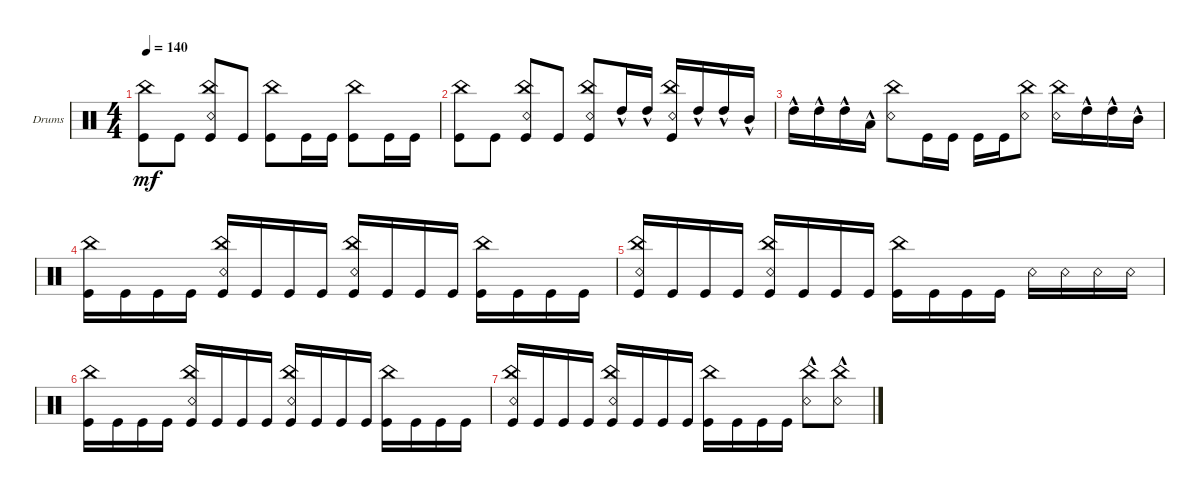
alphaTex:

\defaultSystemsLayout 4
\bracketExtendMode groupsimilarinstruments
\firstSystemTrackNameOrientation horizontal
\otherSystemsTrackNameOrientation horizontal
\track ("Drumkit" "Drums") {instrument percussion}
\staff {score}
\articulation defaults
\ts (4 4)
\tempo 140
\clef neutral
\ks c
("Kick (hit)" "China (hit)").8{dy mf} "Kick (hit)".8 ("Kick (hit)" "China (hit)" "Snare (rim shot)").8 "Kick (hit)".8 ("Kick (hit)" "China (hit)").8 "Kick (hit)".16 "Kick (hit)".16 ("Kick (hit)" "China (hit)").8 "Kick (hit)".16 "Kick (hit)".16 |
("Kick (hit)" "China (hit)").8 "Kick (hit)".8 ("Kick (hit)" "Snare (rim shot)" "China (hit)").8 "Kick (hit)".8 ("Kick (hit)" "Snare (rim shot)" "China (hit)").8 "High Tom (hit)"{hac}.16 "High Tom (hit)"{hac}.16 ("Snare (rim shot)" "China (hit)" "Kick (hit)").16 "High Tom (hit)"{hac}.16 "High Tom (hit)"{hac}.16 "Mid Tom (hit)"{hac}.16 |
"High Tom (hit)"{hac}.16 "High Tom (hit)"{hac}.16 "High Tom (hit)"{hac}.16 "Low Tom (hit)"{hac}.16 ("Snare (rim shot)" "China (hit)").8 "Kick (hit)".16 "Kick (hit)".16 "Kick (hit)".16 "Kick (hit)".16 ("Snare (rim shot)" "China (hit)").8 ("Snare (rim shot)" "China (hit)").16 "High Tom (hit)"{hac}.16 "High Tom (hit)"{hac}.16 "Mid Tom (hit)"{hac}.16 |
("China (hit)" "Kick (hit)").16 "Kick (hit)".16 "Kick (hit)".16 "Kick (hit)".16 ("Snare (rim shot)" "China (hit)" "Kick (hit)").16 "Kick (hit)".16 "Kick (hit)".16 "Kick (hit)".16 ("Snare (rim shot)" "China (hit)" "Kick (hit)").16 "Kick (hit)".16 "Kick (hit)".16 "Kick (hit)".16 ("Kick (hit)" "China (hit)").16 "Kick (hit)".16 "Kick (hit)".16 "Kick (hit)".16 |
("Snare (rim shot)" "China (hit)" "Kick (hit)").16 "Kick (hit)".16 "Kick (hit)".16 "Kick (hit)".16 ("Snare (rim shot)" "China (hit)" "Kick (hit)").16 "Kick (hit)".16 "Kick (hit)".16 "Kick (hit)".16 ("Kick (hit)" "China (hit)").16 "Kick (hit)".16 "Kick (hit)".16 "Kick (hit)".16 "Snare (rim shot)".16 "Snare (rim shot)".16 "Snare (rim shot)".16 "Snare (rim shot)".16 |
("China (hit)" "Kick (hit)").16 "Kick (hit)".16 "Kick (hit)".16 "Kick (hit)".16 ("Snare (rim shot)" "China (hit)" "Kick (hit)").16 "Kick (hit)".16 "Kick (hit)".16 "Kick (hit)".16 ("Snare (rim shot)" "China (hit)" "Kick (hit)").16 "Kick (hit)".16 "Kick (hit)".16 "Kick (hit)".16 ("Kick (hit)" "China (hit)").16 "Kick (hit)".16 "Kick (hit)".16 "Kick (hit)".16 |
("Snare (rim shot)" "China (hit)" "Kick (hit)").16 "Kick (hit)".16 "Kick (hit)".16 "Kick (hit)".16 ("Snare (rim shot)" "China (hit)" "Kick (hit)").16 "Kick (hit)".16 "Kick (hit)".16 "Kick (hit)".16 ("Kick (hit)" "China (hit)").16 "Kick (hit)".16 "Kick (hit)".16 "Kick (hit)".16 ("Snare (rim shot)"{hac} "China (hit)").8 ("Snare (rim shot)"{hac} "China (hit)").8
